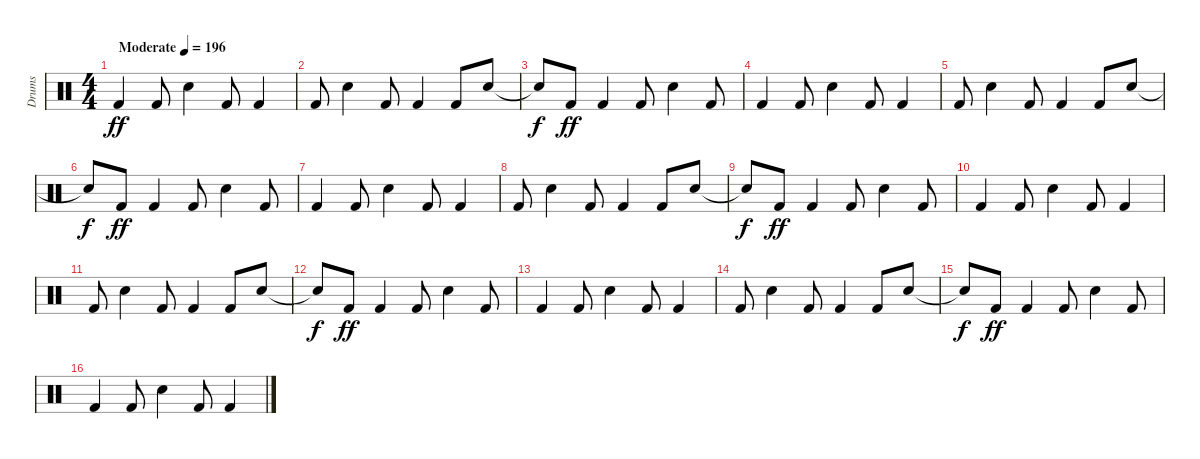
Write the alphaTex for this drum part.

\track ("Drums" "Drums") {instrument percussion}
\staff {score}
\articulation defaults
\ts (4 4)
\tempo (196 "Moderate")
\clef neutral
\ks c "Kick (hit) 2".4{dy ff} "Kick (hit) 2".8 "Electric Snare (hit)".4 "Kick (hit) 2".8 "Kick (hit) 2".4
|
"Kick (hit) 2".8 "Electric Snare (hit)".4 "Kick (hit) 2".8 "Kick (hit) 2".4 "Kick (hit) 2".8 "Electric Snare (hit)".8 |
"Snare (hit)"{t}.8{dy f} "Kick (hit) 2".8{dy ff} "Kick (hit) 2".4 "Kick (hit) 2".8 "Electric Snare (hit)".4 "Kick (hit) 2".8 |
"Kick (hit) 2".4 "Kick (hit) 2".8 "Electric Snare (hit)".4 "Kick (hit) 2".8 "Kick (hit) 2".4 |
"Kick (hit) 2".8 "Electric Snare (hit)".4 "Kick (hit) 2".8 "Kick (hit) 2".4 "Kick (hit) 2".8 "Electric Snare (hit)".8 |
"Snare (hit)"{t}.8{dy f} "Kick (hit) 2".8{dy ff} "Kick (hit) 2".4 "Kick (hit) 2".8 "Electric Snare (hit)".4 "Kick (hit) 2".8 |
"Kick (hit) 2".4 "Kick (hit) 2".8 "Electric Snare (hit)".4 "Kick (hit) 2".8 "Kick (hit) 2".4 |
"Kick (hit) 2".8 "Electric Snare (hit)".4 "Kick (hit) 2".8 "Kick (hit) 2".4 "Kick (hit) 2".8 "Electric Snare (hit)".8 |
"Snare (hit)"{t}.8{dy f} "Kick (hit) 2".8{dy ff} "Kick (hit) 2".4 "Kick (hit) 2".8 "Electric Snare (hit)".4 "Kick (hit) 2".8 |
"Kick (hit) 2".4 "Kick (hit) 2".8 "Electric Snare (hit)".4 "Kick (hit) 2".8 "Kick (hit) 2".4 |
"Kick (hit) 2".8 "Electric Snare (hit)".4 "Kick (hit) 2".8 "Kick (hit) 2".4 "Kick (hit) 2".8 "Electric Snare (hit)".8 |
"Snare (hit)"{t}.8{dy f} "Kick (hit) 2".8{dy ff} "Kick (hit) 2".4 "Kick (hit) 2".8 "Electric Snare (hit)".4 "Kick (hit) 2".8 |
"Kick (hit) 2".4 "Kick (hit) 2".8 "Electric Snare (hit)".4 "Kick (hit) 2".8 "Kick (hit) 2".4 |
"Kick (hit) 2".8 "Electric Snare (hit)".4 "Kick (hit) 2".8 "Kick (hit) 2".4 "Kick (hit) 2".8 "Electric Snare (hit)".8 |
"Snare (hit)"{t}.8{dy f} "Kick (hit) 2".8{dy ff} "Kick (hit) 2".4 "Kick (hit) 2".8 "Electric Snare (hit)".4 "Kick (hit) 2".8 |
"Kick (hit) 2".4 "Kick (hit) 2".8 "Electric Snare (hit)".4 "Kick (hit) 2".8 "Kick (hit) 2".4
